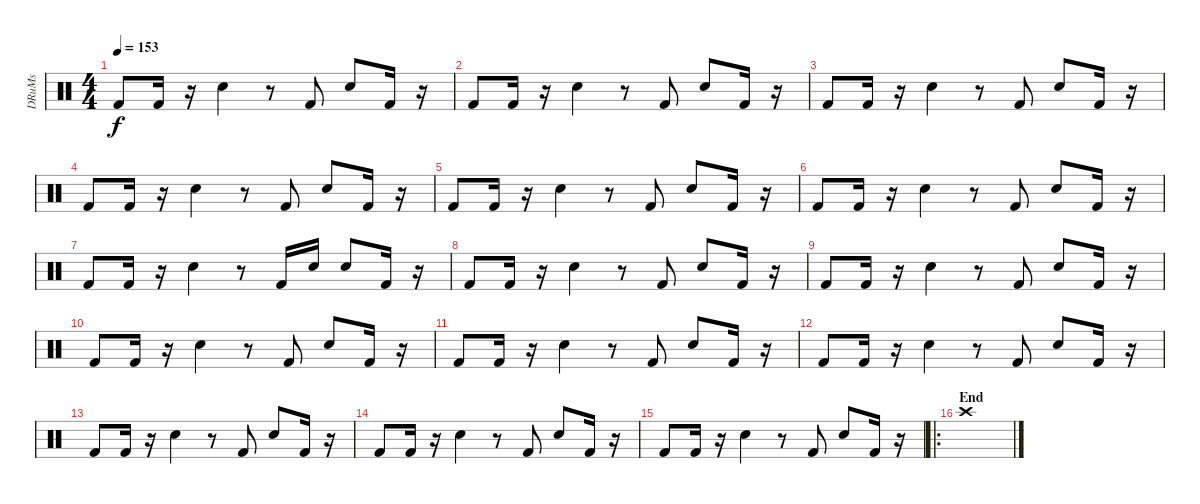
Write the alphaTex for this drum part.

\track ("DRuMs" "DRuMs") {instrument percussion}
\staff {score}
\articulation defaults
\ts (4 4)
\tempo 153
\clef neutral
\ks c "Kick (hit) 2".8{dy f} "Kick (hit) 2".16
r.16 "Electric Snare (hit)".4 r.8 "Kick (hit) 2".8 "Electric Snare (hit)".8 "Kick (hit) 2".16 r.16 |
"Kick (hit) 2".8 "Kick (hit) 2".16 r.16 "Electric Snare (hit)".4 r.8 "Kick (hit) 2".8 "Electric Snare (hit)".8 "Kick (hit) 2".16 r.16 |
"Kick (hit) 2".8 "Kick (hit) 2".16 r.16 "Electric Snare (hit)".4 r.8 "Kick (hit) 2".8 "Electric Snare (hit)".8 "Kick (hit) 2".16 r.16 |
"Kick (hit) 2".8 "Kick (hit) 2".16 r.16 "Electric Snare (hit)".4 r.8 "Kick (hit) 2".8 "Electric Snare (hit)".8 "Kick (hit) 2".16 r.16 |
"Kick (hit) 2".8 "Kick (hit) 2".16 r.16 "Electric Snare (hit)".4 r.8 "Kick (hit) 2".8 "Electric Snare (hit)".8 "Kick (hit) 2".16 r.16 |
"Kick (hit) 2".8 "Kick (hit) 2".16 r.16 "Electric Snare (hit)".4 r.8 "Kick (hit) 2".8 "Electric Snare (hit)".8 "Kick (hit) 2".16 r.16 |
"Kick (hit) 2".8 "Kick (hit) 2".16 r.16 "Electric Snare (hit)".4 r.8 "Kick (hit) 2".16 "Electric Snare (hit)".16 "Electric Snare (hit)".8 "Kick (hit) 2".16 r.16 |
"Kick (hit) 2".8 "Kick (hit) 2".16 r.16 "Electric Snare (hit)".4 r.8 "Kick (hit) 2".8 "Electric Snare (hit)".8 "Kick (hit) 2".16 r.16 |
"Kick (hit) 2".8 "Kick (hit) 2".16 r.16 "Electric Snare (hit)".4 r.8 "Kick (hit) 2".8 "Electric Snare (hit)".8 "Kick (hit) 2".16 r.16 |
"Kick (hit) 2".8 "Kick (hit) 2".16 r.16 "Electric Snare (hit)".4 r.8 "Kick (hit) 2".8 "Electric Snare (hit)".8 "Kick (hit) 2".16 r.16 |
"Kick (hit) 2".8 "Kick (hit) 2".16 r.16 "Electric Snare (hit)".4 r.8 "Kick (hit) 2".8 "Electric Snare (hit)".8 "Kick (hit) 2".16 r.16 |
"Kick (hit) 2".8 "Kick (hit) 2".16 r.16 "Electric Snare (hit)".4 r.8 "Kick (hit) 2".8 "Electric Snare (hit)".8 "Kick (hit) 2".16 r.16 |
"Kick (hit) 2".8 "Kick (hit) 2".16 r.16 "Electric Snare (hit)".4 r.8 "Kick (hit) 2".8 "Electric Snare (hit)".8 "Kick (hit) 2".16 r.16 |
"Kick (hit) 2".8 "Kick (hit) 2".16 r.16 "Electric Snare (hit)".4 r.8 "Kick (hit) 2".8 "Electric Snare (hit)".8 "Kick (hit) 2".16 r.16 |
"Kick (hit) 2".8 "Kick (hit) 2".16 r.16 "Electric Snare (hit)".4 r.8 "Kick (hit) 2".8 "Electric Snare (hit)".8 "Kick (hit) 2".16 r.16 |
\ro
\section ("" "End")
"Crash high (hit)".1
